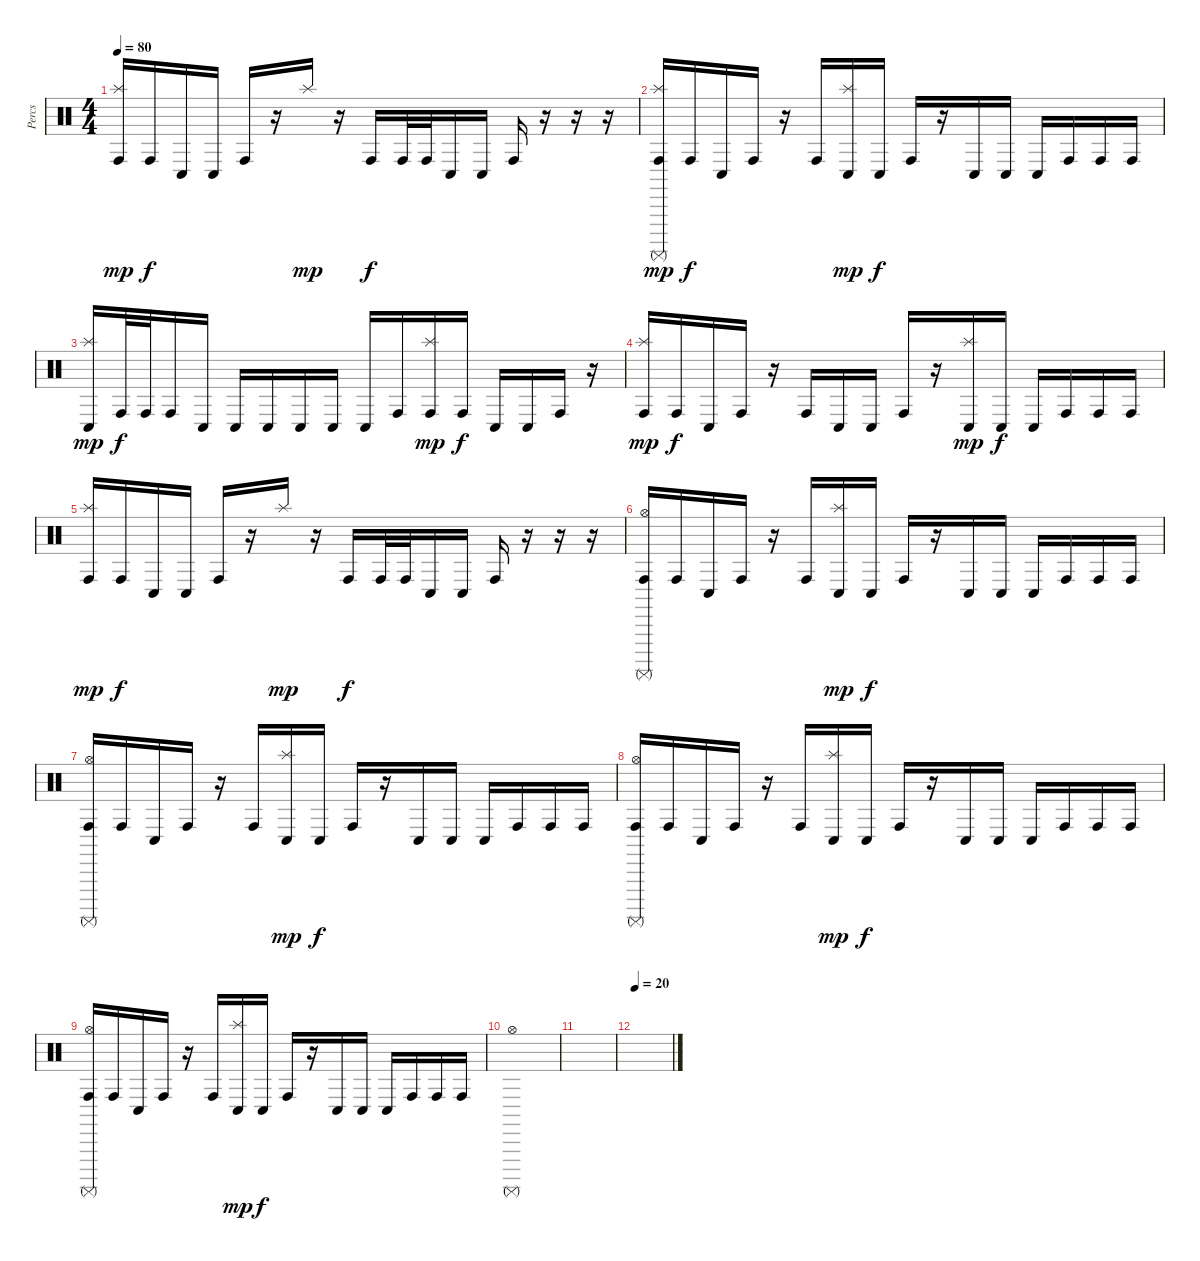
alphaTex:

\track ("Percs" "Percs") {instrument percussion}
\staff {score}
\articulation defaults
\ts (4 4)
\tempo 80
\clef neutral
\ks c
("Splash (hit)" "Conga high (hit)").16{dy mp} "Conga high (hit)".16{dy f} "Conga low (hit)".16 "Conga low (hit)".16 "Conga high (hit)".16 r.16 "Splash (hit)".16{dy mp} r.16 "Conga high (hit)".16{dy f} "Conga high (hit)".32 "Conga high (hit)".32 "Conga low (hit)".16 "Conga low (hit)".16 "Conga high (hit)".16 r.16 r.16 r.16 |
("Splash (hit)" "Conga high (hit)" "Surdo (mute)").16{dy mp} "Conga high (hit)".16{dy f} "Conga low (hit)".16 "Conga high (hit)".16 r.16 "Conga high (hit)".16 ("Splash (hit)" "Conga low (hit)").16{dy mp} "Conga low (hit)".16{dy f} "Conga high (hit)".16 r.16 "Conga low (hit)".16 "Conga low (hit)".16 "Conga low (hit)".16 "Conga high (hit)".16 "Conga high (hit)".16 "Conga high (hit)".16 |
("Splash (hit)" "Conga low (hit)").16{dy mp} "Conga high (hit)".32{dy f} "Conga high (hit)".32 "Conga high (hit)".16 "Conga low (hit)".16 "Conga low (hit)".16 "Conga low (hit)".16 "Conga low (hit)".16 "Conga low (hit)".16 "Conga low (hit)".16 "Conga high (hit)".16 ("Splash (hit)" "Conga high (hit)").16{dy mp} "Conga high (hit)".16{dy f} "Conga low (hit)".16 "Conga low (hit)".16 "Conga high (hit)".16 r.16 |
("Splash (hit)" "Conga high (hit)").16{dy mp} "Conga high (hit)".16{dy f} "Conga low (hit)".16 "Conga high (hit)".16 r.16 "Conga high (hit)".16 "Conga low (hit)".16 "Conga low (hit)".16 "Conga high (hit)".16 r.16 ("Splash (hit)" "Conga low (hit)").16{dy mp} "Conga low (hit)".16{dy f} "Conga low (hit)".16 "Conga high (hit)".16 "Conga high (hit)".16 "Conga high (hit)".16 |
("Splash (hit)" "Conga high (hit)").16{dy mp} "Conga high (hit)".16{dy f} "Conga low (hit)".16 "Conga low (hit)".16 "Conga high (hit)".16 r.16 "Splash (hit)".16{dy mp} r.16 "Conga high (hit)".16{dy f} "Conga high (hit)".32 "Conga high (hit)".32 "Conga low (hit)".16 "Conga low (hit)".16 "Conga high (hit)".16 r.16 r.16 r.16 |
("Hi-Hat (open)" "Conga high (hit)" "Surdo (mute)").16 "Conga high (hit)".16 "Conga low (hit)".16 "Conga high (hit)".16 r.16 "Conga high (hit)".16 ("Splash (hit)" "Conga low (hit)").16{dy mp} "Conga low (hit)".16{dy f} "Conga high (hit)".16 r.16 "Conga low (hit)".16 "Conga low (hit)".16 "Conga low (hit)".16 "Conga high (hit)".16 "Conga high (hit)".16 "Conga high (hit)".16 |
("Hi-Hat (open)" "Conga high (hit)" "Surdo (mute)").16 "Conga high (hit)".16 "Conga low (hit)".16 "Conga high (hit)".16 r.16 "Conga high (hit)".16 ("Splash (hit)" "Conga low (hit)").16{dy mp} "Conga low (hit)".16{dy f} "Conga high (hit)".16 r.16 "Conga low (hit)".16 "Conga low (hit)".16 "Conga low (hit)".16 "Conga high (hit)".16 "Conga high (hit)".16 "Conga high (hit)".16 |
("Hi-Hat (open)" "Conga high (hit)" "Surdo (mute)").16 "Conga high (hit)".16 "Conga low (hit)".16 "Conga high (hit)".16 r.16 "Conga high (hit)".16 ("Splash (hit)" "Conga low (hit)").16{dy mp} "Conga low (hit)".16{dy f} "Conga high (hit)".16 r.16 "Conga low (hit)".16 "Conga low (hit)".16 "Conga low (hit)".16 "Conga high (hit)".16 "Conga high (hit)".16 "Conga high (hit)".16 |
("Hi-Hat (open)" "Conga high (hit)" "Surdo (mute)").16 "Conga high (hit)".16 "Conga low (hit)".16 "Conga high (hit)".16 r.16 "Conga high (hit)".16 ("Splash (hit)" "Conga low (hit)").16{dy mp} "Conga low (hit)".16{dy f} "Conga high (hit)".16 r.16 "Conga low (hit)".16 "Conga low (hit)".16 "Conga low (hit)".16 "Conga high (hit)".16 "Conga high (hit)".16 "Conga high (hit)".16 |
("Hi-Hat (open)" "Surdo (mute)").1 |
|
\tempo 20
